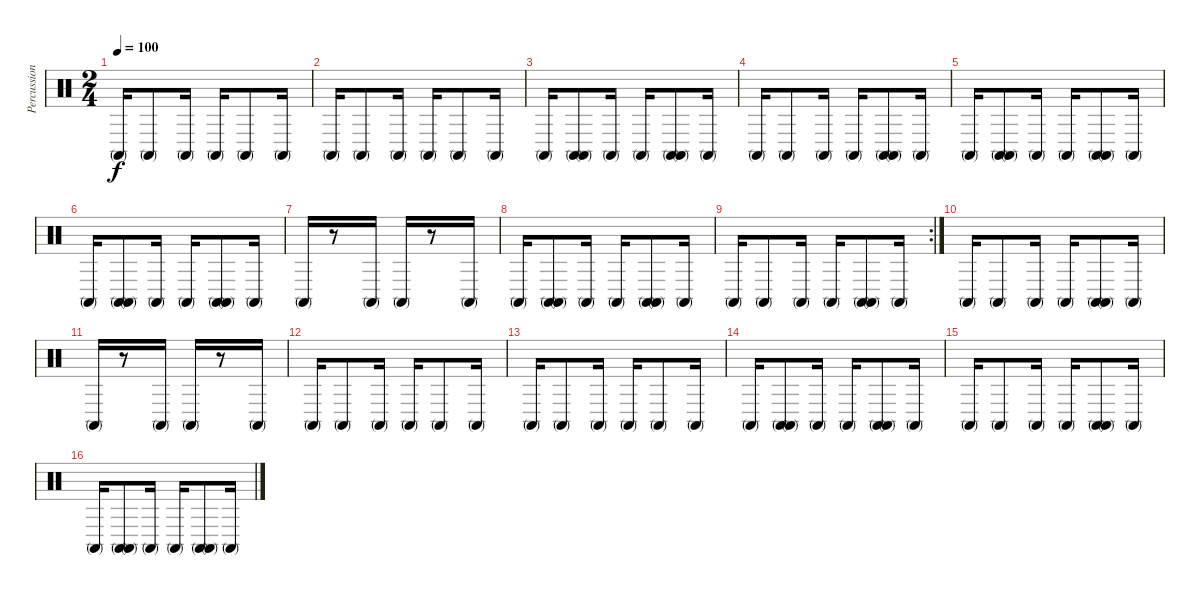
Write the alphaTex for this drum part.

\track ("Percussion" "Percussion") {instrument percussion}
\staff {score}
\articulation defaults
\ts (2 4)
\tempo 100
\clef neutral
\ks c "Conga high (mute)".16{dy f} "Conga high (mute)".8 "Conga high (mute)".16 "Conga high (mute)".16 "Conga high (mute)".8 "Conga high (mute)".16
|
"Conga high (mute)".16 "Conga high (mute)".8 "Conga high (mute)".16 "Conga high (mute)".16 "Conga high (mute)".8 "Conga high (mute)".16 |
"Conga high (mute)".16 ("Conga high (mute)" "Conga high (mute)").8 "Conga high (mute)".16 "Conga high (mute)".16 ("Conga high (mute)" "Conga high (mute)").8 "Conga high (mute)".16 |
"Conga high (mute)".16 "Conga high (mute)".8 "Conga high (mute)".16 "Conga high (mute)".16 ("Conga high (mute)" "Conga high (mute)").8 "Conga high (mute)".16 |
"Conga high (mute)".16 ("Conga high (mute)" "Conga high (mute)").8 "Conga high (mute)".16 "Conga high (mute)".16 ("Conga high (mute)" "Conga high (mute)").8 "Conga high (mute)".16 |
"Conga high (mute)".16 ("Conga high (mute)" "Conga high (mute)").8 "Conga high (mute)".16 "Conga high (mute)".16 ("Conga high (mute)" "Conga high (mute)").8 "Conga high (mute)".16 |
"Conga high (mute)".16 r.8 "Conga high (mute)".16 "Conga high (mute)".16 r.8 "Conga high (mute)".16 |
"Conga high (mute)".16 ("Conga high (mute)" "Conga high (mute)").8 "Conga high (mute)".16 "Conga high (mute)".16 ("Conga high (mute)" "Conga high (mute)").8 "Conga high (mute)".16 |
\rc 2 "Conga high (mute)".16 "Conga high (mute)".8 "Conga high (mute)".16 "Conga high (mute)".16
("Conga high (mute)" "Conga high (mute)").8 "Conga high (mute)".16 |
"Conga high (mute)".16 "Conga high (mute)".8 "Conga high (mute)".16 "Conga high (mute)".16 ("Conga high (mute)" "Conga high (mute)").8 "Conga high (mute)".16 |
"Conga high (mute)".16 r.8 "Conga high (mute)".16 "Conga high (mute)".16 r.8 "Conga high (mute)".16 |
"Conga high (mute)".16 "Conga high (mute)".8 "Conga high (mute)".16 "Conga high (mute)".16 "Conga high (mute)".8 "Conga high (mute)".16 |
"Conga high (mute)".16 "Conga high (mute)".8 "Conga high (mute)".16 "Conga high (mute)".16 "Conga high (mute)".8 "Conga high (mute)".16 |
"Conga high (mute)".16 ("Conga high (mute)" "Conga high (mute)").8 "Conga high (mute)".16 "Conga high (mute)".16 ("Conga high (mute)" "Conga high (mute)").8 "Conga high (mute)".16 |
"Conga high (mute)".16 "Conga high (mute)".8 "Conga high (mute)".16 "Conga high (mute)".16 ("Conga high (mute)" "Conga high (mute)").8 "Conga high (mute)".16 |
"Conga high (mute)".16 ("Conga high (mute)" "Conga high (mute)").8 "Conga high (mute)".16 "Conga high (mute)".16 ("Conga high (mute)" "Conga high (mute)").8 "Conga high (mute)".16
